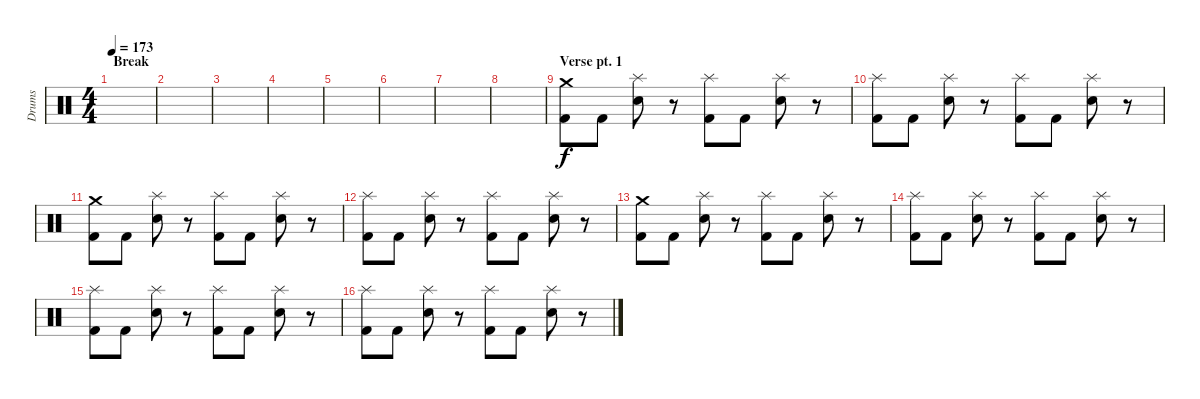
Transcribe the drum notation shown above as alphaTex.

\track ("Drums" "Drums") {instrument percussion}
\staff {score}
\articulation defaults
\ts (4 4)
\section ("" "Break")
\tempo 173
\clef neutral
\ks c
|
|
|
|
|
|
|
|
\section ("" "Verse pt. 1")
("Crash medium (hit)" "Kick (hit) 2").8 "Kick (hit) 2".8 ("Splash (hit)" "Snare (hit) 2").8 r.8 ("Splash (hit)" "Kick (hit) 2").8 "Kick (hit) 2".8 ("Splash (hit)" "Snare (hit) 2").8 r.8 |
("Splash (hit)" "Kick (hit) 2").8 "Kick (hit) 2".8 ("Splash (hit)" "Snare (hit) 2").8 r.8 ("Splash (hit)" "Kick (hit) 2").8 "Kick (hit) 2".8 ("Splash (hit)" "Snare (hit) 2").8 r.8 |
("Crash medium (hit)" "Kick (hit) 2").8 "Kick (hit) 2".8 ("Splash (hit)" "Snare (hit) 2").8 r.8 ("Splash (hit)" "Kick (hit) 2").8 "Kick (hit) 2".8 ("Splash (hit)" "Snare (hit) 2").8 r.8 |
("Splash (hit)" "Kick (hit) 2").8 "Kick (hit) 2".8 ("Splash (hit)" "Snare (hit) 2").8 r.8 ("Splash (hit)" "Kick (hit) 2").8 "Kick (hit) 2".8 ("Splash (hit)" "Snare (hit) 2").8 r.8 |
("Crash medium (hit)" "Kick (hit) 2").8 "Kick (hit) 2".8 ("Splash (hit)" "Snare (hit) 2").8 r.8 ("Splash (hit)" "Kick (hit) 2").8 "Kick (hit) 2".8 ("Splash (hit)" "Snare (hit) 2").8 r.8 |
("Splash (hit)" "Kick (hit) 2").8 "Kick (hit) 2".8 ("Splash (hit)" "Snare (hit) 2").8 r.8 ("Splash (hit)" "Kick (hit) 2").8 "Kick (hit) 2".8 ("Splash (hit)" "Snare (hit) 2").8 r.8 |
("Splash (hit)" "Kick (hit) 2").8 "Kick (hit) 2".8 ("Splash (hit)" "Snare (hit) 2").8 r.8 ("Splash (hit)" "Kick (hit) 2").8 "Kick (hit) 2".8 ("Splash (hit)" "Snare (hit) 2").8 r.8 |
("Splash (hit)" "Kick (hit) 2").8 "Kick (hit) 2".8 ("Splash (hit)" "Snare (hit) 2").8 r.8 ("Splash (hit)" "Kick (hit) 2").8 "Kick (hit) 2".8 ("Splash (hit)" "Snare (hit) 2").8 r.8
